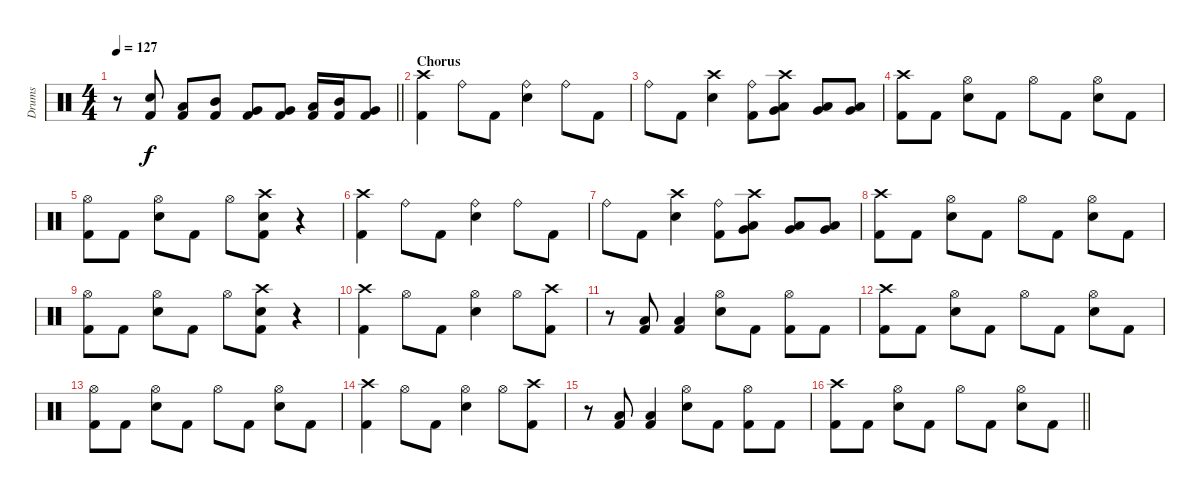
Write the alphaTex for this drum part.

\track ("Drums" "Drums") {instrument percussion}
\staff {score}
\articulation defaults
\ts (4 4)
\tempo 127
\clef neutral
\barLineRight lightlight
\ks c
r.8{dy f} ("Kick (hit) 2" "Electric Snare (hit)").8 ("Kick (hit) 2" "Low Tom (hit)").8 ("Kick (hit) 2" "Mid Tom (hit)").8 ("Kick (hit) 2" "Very Low Tom (hit)").8 ("Kick (hit) 2" "Very Low Tom (hit)").8 ("Kick (hit) 2" "Low Tom (hit)").16 ("Kick (hit) 2" "Mid Tom (hit)").16 ("Kick (hit) 2" "Very Low Tom (hit)").8 |
\section ("" "Chorus")
("Crash high (hit)" "Kick (hit) 2").4 "Ride (bell)".8 "Kick (hit) 2".8 ("Ride (bell)" "Electric Snare (hit)").4 "Ride (bell)".8 "Kick (hit) 2".8 |
"Ride (bell)".8 "Kick (hit) 2".8 ("Crash high (hit)" "Electric Snare (hit)").4 ("Ride (bell)" "Kick (hit) 2").8 ("Crash high (hit)" "Low Tom (hit)" "Very Low Tom (hit)").8 ("Low Tom (hit)" "Very Low Tom (hit)").8 ("Low Tom (hit)" "Very Low Tom (hit)").8 |
("Crash high (hit)" "Kick (hit) 2").8 "Kick (hit) 2".8 ("Hi-Hat (open)" "Electric Snare (hit)").8 "Kick (hit) 2".8 "Hi-Hat (open)".8 "Kick (hit) 2".8 ("Hi-Hat (open)" "Electric Snare (hit)").8 "Kick (hit) 2".8 |
("Hi-Hat (open)" "Kick (hit) 2").8 "Kick (hit) 2".8 ("Hi-Hat (open)" "Electric Snare (hit)").8 "Kick (hit) 2".8 "Hi-Hat (open)".8 ("Crash high (hit)" "Electric Snare (hit)" "Kick (hit) 2").8 r.4 |
("Crash high (hit)" "Kick (hit) 2").4 "Ride (bell)".8 "Kick (hit) 2".8 ("Ride (bell)" "Electric Snare (hit)").4 "Ride (bell)".8 "Kick (hit) 2".8 |
"Ride (bell)".8 "Kick (hit) 2".8 ("Crash high (hit)" "Electric Snare (hit)").4 ("Ride (bell)" "Kick (hit) 2").8 ("Crash high (hit)" "Low Tom (hit)" "Very Low Tom (hit)").8 ("Low Tom (hit)" "Very Low Tom (hit)").8 ("Low Tom (hit)" "Very Low Tom (hit)").8 |
("Crash high (hit)" "Kick (hit) 2").8 "Kick (hit) 2".8 ("Hi-Hat (open)" "Electric Snare (hit)").8 "Kick (hit) 2".8 "Hi-Hat (open)".8 "Kick (hit) 2".8 ("Hi-Hat (open)" "Electric Snare (hit)").8 "Kick (hit) 2".8 |
("Hi-Hat (open)" "Kick (hit) 2").8 "Kick (hit) 2".8 ("Hi-Hat (open)" "Electric Snare (hit)").8 "Kick (hit) 2".8 "Hi-Hat (open)".8 ("Crash high (hit)" "Electric Snare (hit)" "Kick (hit) 2").8 r.4 |
("Crash high (hit)" "Kick (hit) 2").4 "Hi-Hat (open)".8 "Kick (hit) 2".8 ("Hi-Hat (open)" "Electric Snare (hit)").4 "Hi-Hat (open)".8 ("Crash high (hit)" "Kick (hit) 2").8 |
r.8 ("Low Floor Tom (hit)" "Kick (hit) 2").8 ("Low Floor Tom (hit)" "Kick (hit) 2").4 ("Hi-Hat (open)" "Electric Snare (hit)").8 "Kick (hit) 2".8 ("Hi-Hat (open)" "Kick (hit) 2").8 "Kick (hit) 2".8 |
("Crash high (hit)" "Kick (hit) 2").8 "Kick (hit) 2".8 ("Hi-Hat (open)" "Electric Snare (hit)").8 "Kick (hit) 2".8 "Hi-Hat (open)".8 "Kick (hit) 2".8 ("Hi-Hat (open)" "Electric Snare (hit)").8 "Kick (hit) 2".8 |
("Hi-Hat (open)" "Kick (hit) 2").8 "Kick (hit) 2".8 ("Hi-Hat (open)" "Electric Snare (hit)").8 "Kick (hit) 2".8 "Hi-Hat (open)".8 "Kick (hit) 2".8 ("Hi-Hat (open)" "Electric Snare (hit)").8 "Kick (hit) 2".8 |
("Crash high (hit)" "Kick (hit) 2").4 "Hi-Hat (open)".8 "Kick (hit) 2".8 ("Hi-Hat (open)" "Electric Snare (hit)").4 "Hi-Hat (open)".8 ("Crash high (hit)" "Kick (hit) 2").8 |
r.8 ("Low Floor Tom (hit)" "Kick (hit) 2").8 ("Low Floor Tom (hit)" "Kick (hit) 2").4 ("Hi-Hat (open)" "Electric Snare (hit)").8 "Kick (hit) 2".8 ("Hi-Hat (open)" "Kick (hit) 2").8 "Kick (hit) 2".8 |
\barLineRight lightlight
("Crash high (hit)" "Kick (hit) 2").8 "Kick (hit) 2".8 ("Hi-Hat (open)" "Electric Snare (hit)").8 "Kick (hit) 2".8 "Hi-Hat (open)".8 "Kick (hit) 2".8 ("Hi-Hat (open)" "Electric Snare (hit)").8 "Kick (hit) 2".8
